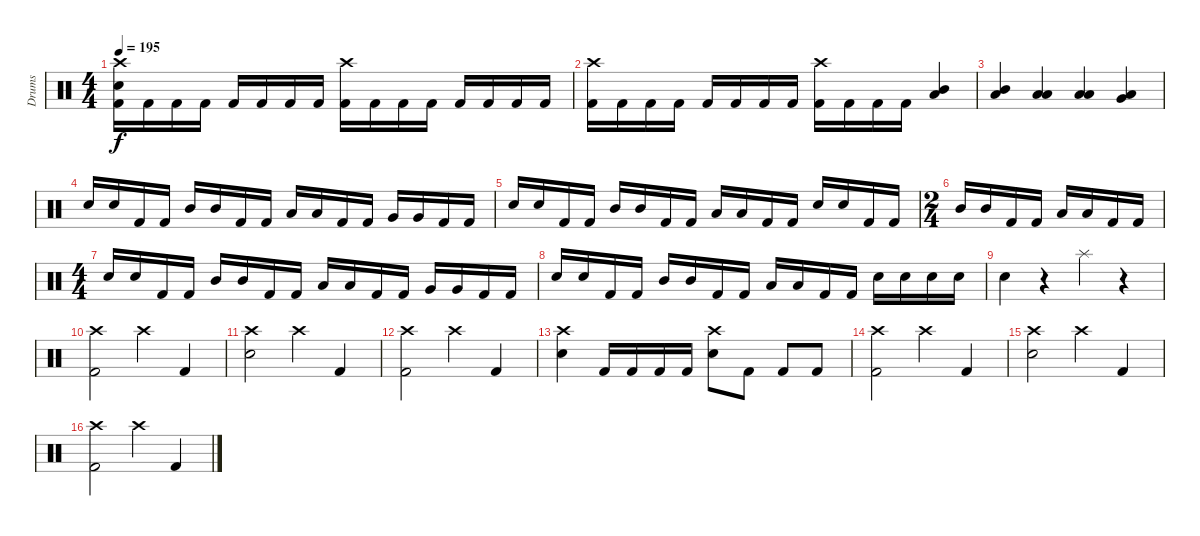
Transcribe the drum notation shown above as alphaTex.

\track ("Drums" "Drums") {instrument percussion}
\staff {score}
\articulation defaults
\ts (4 4)
\tempo 195
\clef neutral
\ks c
("Crash high (hit)" "Snare (hit) 2" "Kick (hit) 2").16{dy f} "Kick (hit) 2".16 "Kick (hit) 2".16 "Kick (hit) 2".16 "Kick (hit) 2".16 "Kick (hit) 2".16 "Kick (hit) 2".16 "Kick (hit) 2".16 ("Crash high (hit)" "Kick (hit) 2").16 "Kick (hit) 2".16 "Kick (hit) 2".16 "Kick (hit) 2".16 "Kick (hit) 2".16 "Kick (hit) 2".16 "Kick (hit) 2".16 "Kick (hit) 2".16 |
("Crash high (hit)" "Kick (hit) 2").16 "Kick (hit) 2".16 "Kick (hit) 2".16 "Kick (hit) 2".16 "Kick (hit) 2".16 "Kick (hit) 2".16 "Kick (hit) 2".16 "Kick (hit) 2".16 ("Crash high (hit)" "Kick (hit) 2").16 "Kick (hit) 2".16 "Kick (hit) 2".16 "Kick (hit) 2".16 ("Mid Tom (hit)" "Low Floor Tom (hit)").4 |
("Mid Tom (hit)" "Low Floor Tom (hit)").4 ("Low Tom (hit)" "Low Floor Tom (hit)").4 ("Low Tom (hit)" "Low Floor Tom (hit)").4 ("Very Low Tom (hit)" "Low Floor Tom (hit)").4 |
"Snare (hit) 2".16 "Snare (hit) 2".16 "Kick (hit) 2".16 "Kick (hit) 2".16 "Mid Tom (hit)".16 "Mid Tom (hit)".16 "Kick (hit) 2".16 "Kick (hit) 2".16 "Low Tom (hit)".16 "Low Tom (hit)".16 "Kick (hit) 2".16 "Kick (hit) 2".16 "Very Low Tom (hit)".16 "Very Low Tom (hit)".16 "Kick (hit) 2".16 "Kick (hit) 2".16 |
"Snare (hit) 2".16 "Snare (hit) 2".16 "Kick (hit) 2".16 "Kick (hit) 2".16 "Mid Tom (hit)".16 "Mid Tom (hit)".16 "Kick (hit) 2".16 "Kick (hit) 2".16 "Low Tom (hit)".16 "Low Tom (hit)".16 "Kick (hit) 2".16 "Kick (hit) 2".16 "Snare (hit) 2".16 "Snare (hit) 2".16 "Kick (hit) 2".16 "Kick (hit) 2".16 |
\ts (2 4)
"Mid Tom (hit)".16 "Mid Tom (hit)".16 "Kick (hit) 2".16 "Kick (hit) 2".16 "Low Tom (hit)".16 "Low Tom (hit)".16 "Kick (hit) 2".16 "Kick (hit) 2".16 |
\ts (4 4)
"Snare (hit) 2".16 "Snare (hit) 2".16 "Kick (hit) 2".16 "Kick (hit) 2".16 "Mid Tom (hit)".16 "Mid Tom (hit)".16 "Kick (hit) 2".16 "Kick (hit) 2".16 "Low Tom (hit)".16 "Low Tom (hit)".16 "Kick (hit) 2".16 "Kick (hit) 2".16 "Very Low Tom (hit)".16 "Very Low Tom (hit)".16 "Kick (hit) 2".16 "Kick (hit) 2".16 |
"Snare (hit) 2".16 "Snare (hit) 2".16 "Kick (hit) 2".16 "Kick (hit) 2".16 "Mid Tom (hit)".16 "Mid Tom (hit)".16 "Kick (hit) 2".16 "Kick (hit) 2".16 "Low Tom (hit)".16 "Low Tom (hit)".16 "Kick (hit) 2".16 "Kick (hit) 2".16 "Snare (hit) 2".16 "Snare (hit) 2".16 "Snare (hit) 2".16 "Snare (hit) 2".16 |
"Snare (hit) 2".4 r.4 "Splash (hit)".4 r.4 |
("Crash high (hit)" "Kick (hit) 2").2 "Crash high (hit)".4 "Kick (hit) 2".4 |
("Crash high (hit)" "Snare (hit) 2").2 "Crash high (hit)".4 "Kick (hit) 2".4 |
("Crash high (hit)" "Kick (hit) 2").2 "Crash high (hit)".4 "Kick (hit) 2".4 |
("Crash high (hit)" "Snare (hit) 2").4 "Kick (hit) 2".16 "Kick (hit) 2".16 "Kick (hit) 2".16 "Kick (hit) 2".16 ("Crash high (hit)" "Snare (hit) 2").8 "Kick (hit) 2".8 "Kick (hit) 2".8 "Kick (hit) 2".8 |
("Crash high (hit)" "Kick (hit) 2").2 "Crash high (hit)".4 "Kick (hit) 2".4 |
("Crash high (hit)" "Snare (hit) 2").2 "Crash high (hit)".4 "Kick (hit) 2".4 |
("Crash high (hit)" "Kick (hit) 2").2 "Crash high (hit)".4 "Kick (hit) 2".4
